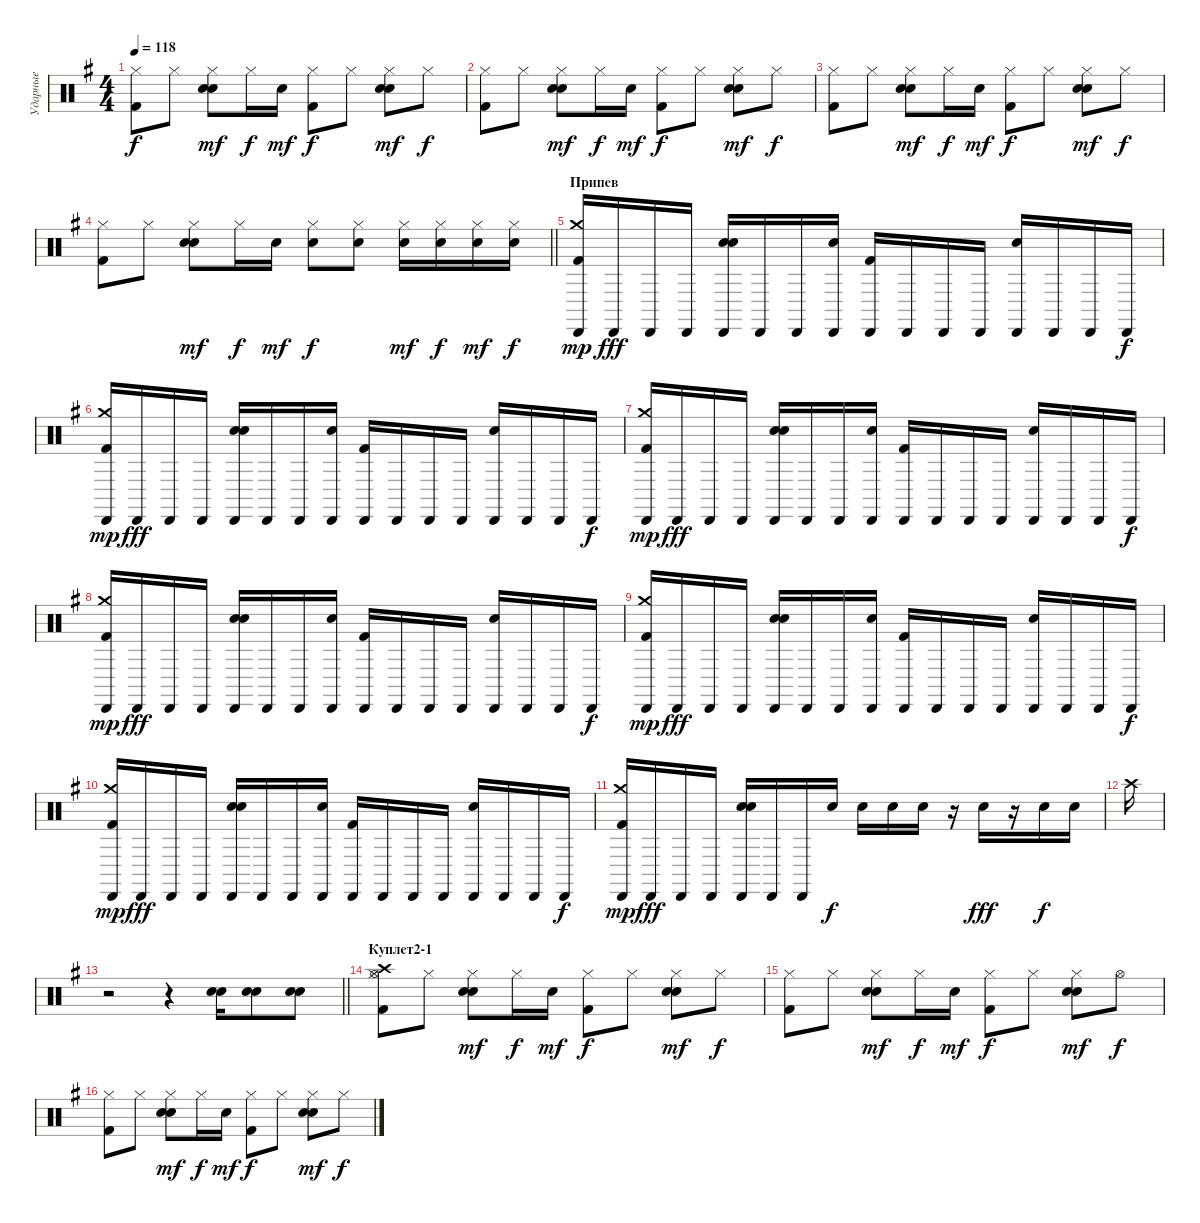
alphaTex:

\track ("Ударные" "Ударные") {instrument percussion}
\staff {score}
\articulation defaults
\ts (4 4)
\tempo 118
\clef neutral
\ks eminor
("Hi-Hat (closed)" "Kick (hit) 2").8{dy f} "Hi-Hat (closed)".8 ("Hi-Hat (closed)" "Electric Snare (hit)" "Snare (hit) 2").8{dy mf} "Hi-Hat (closed)".16{dy f} "Snare (hit) 2".16{dy mf} ("Hi-Hat (closed)" "Kick (hit) 2").8{dy f} "Hi-Hat (closed)".8 ("Hi-Hat (closed)" "Electric Snare (hit)" "Snare (hit) 2").8{dy mf} "Hi-Hat (closed)".8{dy f} |
("Hi-Hat (closed)" "Kick (hit) 2").8 "Hi-Hat (closed)".8 ("Hi-Hat (closed)" "Electric Snare (hit)" "Snare (hit) 2").8{dy mf} "Hi-Hat (closed)".16{dy f} "Snare (hit) 2".16{dy mf} ("Hi-Hat (closed)" "Kick (hit) 2").8{dy f} "Hi-Hat (closed)".8 ("Hi-Hat (closed)" "Electric Snare (hit)" "Snare (hit) 2").8{dy mf} "Hi-Hat (closed)".8{dy f} |
("Hi-Hat (closed)" "Kick (hit) 2").8 "Hi-Hat (closed)".8 ("Hi-Hat (closed)" "Electric Snare (hit)" "Snare (hit) 2").8{dy mf} "Hi-Hat (closed)".16{dy f} "Snare (hit) 2".16{dy mf} ("Hi-Hat (closed)" "Kick (hit) 2").8{dy f} "Hi-Hat (closed)".8 ("Hi-Hat (closed)" "Electric Snare (hit)" "Snare (hit) 2").8{dy mf} "Hi-Hat (closed)".8{dy f} |
\barLineRight lightlight
("Hi-Hat (closed)" "Kick (hit) 2").8 "Hi-Hat (closed)".8 ("Hi-Hat (closed)" "Electric Snare (hit)" "Snare (hit) 2").8{dy mf} "Hi-Hat (closed)".16{dy f} "Snare (hit) 2".16{dy mf} ("Hi-Hat (closed)" "Snare (hit) 2").8{dy f} ("Hi-Hat (closed)" "Snare (hit) 2").8 ("Hi-Hat (closed)" "Snare (hit) 2").16{dy mf} ("Hi-Hat (closed)" "Snare (hit) 2").16{dy f} ("Hi-Hat (closed)" "Snare (hit) 2").16{dy mf} ("Hi-Hat (closed)" "Snare (hit) 2").16{dy f} |
\section ("" "Припев")
("Cabasa (hit)" "Crash medium (hit)" "Kick (hit) 2").16{dy mp} "Cabasa (hit)".16{dy fff} "Cabasa (hit)".16 "Cabasa (hit)".16 ("Cabasa (hit)" "Electric Snare (hit)" "Snare (hit) 2").16 "Cabasa (hit)".16 "Cabasa (hit)".16 ("Cabasa (hit)" "Snare (hit) 2").16 ("Cabasa (hit)" "Kick (hit) 2").16 "Cabasa (hit)".16 "Cabasa (hit)".16 "Cabasa (hit)".16 ("Cabasa (hit)" "Snare (hit) 2").16 "Cabasa (hit)".16 "Cabasa (hit)".16 "Cabasa (hit)".16{dy f} |
("Cabasa (hit)" "Crash medium (hit)" "Kick (hit) 2").16{dy mp} "Cabasa (hit)".16{dy fff} "Cabasa (hit)".16 "Cabasa (hit)".16 ("Cabasa (hit)" "Electric Snare (hit)" "Snare (hit) 2").16 "Cabasa (hit)".16 "Cabasa (hit)".16 ("Cabasa (hit)" "Snare (hit) 2").16 ("Cabasa (hit)" "Kick (hit) 2").16 "Cabasa (hit)".16 "Cabasa (hit)".16 "Cabasa (hit)".16 ("Cabasa (hit)" "Snare (hit) 2").16 "Cabasa (hit)".16 "Cabasa (hit)".16 "Cabasa (hit)".16{dy f} |
("Cabasa (hit)" "Crash medium (hit)" "Kick (hit) 2").16{dy mp} "Cabasa (hit)".16{dy fff} "Cabasa (hit)".16 "Cabasa (hit)".16 ("Cabasa (hit)" "Electric Snare (hit)" "Snare (hit) 2").16 "Cabasa (hit)".16 "Cabasa (hit)".16 ("Cabasa (hit)" "Snare (hit) 2").16 ("Cabasa (hit)" "Kick (hit) 2").16 "Cabasa (hit)".16 "Cabasa (hit)".16 "Cabasa (hit)".16 ("Cabasa (hit)" "Snare (hit) 2").16 "Cabasa (hit)".16 "Cabasa (hit)".16 "Cabasa (hit)".16{dy f} |
("Cabasa (hit)" "Crash medium (hit)" "Kick (hit) 2").16{dy mp} "Cabasa (hit)".16{dy fff} "Cabasa (hit)".16 "Cabasa (hit)".16 ("Cabasa (hit)" "Electric Snare (hit)" "Snare (hit) 2").16 "Cabasa (hit)".16 "Cabasa (hit)".16 ("Cabasa (hit)" "Snare (hit) 2").16 ("Cabasa (hit)" "Kick (hit) 2").16 "Cabasa (hit)".16 "Cabasa (hit)".16 "Cabasa (hit)".16 ("Cabasa (hit)" "Snare (hit) 2").16 "Cabasa (hit)".16 "Cabasa (hit)".16 "Cabasa (hit)".16{dy f} |
("Cabasa (hit)" "Crash medium (hit)" "Kick (hit) 2").16{dy mp} "Cabasa (hit)".16{dy fff} "Cabasa (hit)".16 "Cabasa (hit)".16 ("Cabasa (hit)" "Electric Snare (hit)" "Snare (hit) 2").16 "Cabasa (hit)".16 "Cabasa (hit)".16 ("Cabasa (hit)" "Snare (hit) 2").16 ("Cabasa (hit)" "Kick (hit) 2").16 "Cabasa (hit)".16 "Cabasa (hit)".16 "Cabasa (hit)".16 ("Cabasa (hit)" "Snare (hit) 2").16 "Cabasa (hit)".16 "Cabasa (hit)".16 "Cabasa (hit)".16{dy f} |
("Cabasa (hit)" "Crash medium (hit)" "Kick (hit) 2").16{dy mp} "Cabasa (hit)".16{dy fff} "Cabasa (hit)".16 "Cabasa (hit)".16 ("Cabasa (hit)" "Electric Snare (hit)" "Snare (hit) 2").16 "Cabasa (hit)".16 "Cabasa (hit)".16 ("Cabasa (hit)" "Snare (hit) 2").16 ("Cabasa (hit)" "Kick (hit) 2").16 "Cabasa (hit)".16 "Cabasa (hit)".16 "Cabasa (hit)".16 ("Cabasa (hit)" "Snare (hit) 2").16 "Cabasa (hit)".16 "Cabasa (hit)".16 "Cabasa (hit)".16{dy f} |
("Cabasa (hit)" "Crash medium (hit)" "Kick (hit) 2").16{dy mp} "Cabasa (hit)".16{dy fff} "Cabasa (hit)".16 "Cabasa (hit)".16 ("Cabasa (hit)" "Electric Snare (hit)" "Snare (hit) 2").16 "Cabasa (hit)".16 "Cabasa (hit)".16 "Snare (hit) 2".16{dy f} "Snare (hit) 2".16 "Snare (hit) 2".16 "Snare (hit) 2".16 r.16 "Snare (hit) 2".16{dy fff} r.16 "Snare (hit) 2".16{dy f} "Snare (hit) 2".16 |
"Crash high (hit)".16 |
\barLineRight lightlight
r.2 r.4 ("Snare (hit) 2" "Electric Snare (hit)").16 ("Snare (hit) 2" "Electric Snare (hit)").8 ("Snare (hit) 2" "Electric Snare (hit)").8 |
\section ("" "Куплет2-1")
("Hi-Hat (closed)" "Crash high (hit)" "Kick (hit) 2" "Hi-Hat (open)").8 "Hi-Hat (closed)".8 ("Hi-Hat (closed)" "Electric Snare (hit)" "Snare (hit) 2").8{dy mf} "Hi-Hat (closed)".16{dy f} "Snare (hit) 2".16{dy mf} ("Hi-Hat (closed)" "Kick (hit) 2").8{dy f} "Hi-Hat (closed)".8 ("Hi-Hat (closed)" "Electric Snare (hit)" "Snare (hit) 2").8{dy mf} "Hi-Hat (closed)".8{dy f} |
("Hi-Hat (closed)" "Kick (hit) 2").8 "Hi-Hat (closed)".8 ("Hi-Hat (closed)" "Electric Snare (hit)" "Snare (hit) 2").8{dy mf} "Hi-Hat (closed)".16{dy f} "Snare (hit) 2".16{dy mf} ("Hi-Hat (closed)" "Kick (hit) 2").8{dy f} "Hi-Hat (closed)".8 ("Hi-Hat (closed)" "Electric Snare (hit)" "Snare (hit) 2").8{dy mf} "Hi-Hat (open)".8{dy f} |
("Hi-Hat (closed)" "Kick (hit) 2").8 "Hi-Hat (closed)".8 ("Hi-Hat (closed)" "Electric Snare (hit)" "Snare (hit) 2").8{dy mf} "Hi-Hat (closed)".16{dy f} "Snare (hit) 2".16{dy mf} ("Hi-Hat (closed)" "Kick (hit) 2").8{dy f} "Hi-Hat (closed)".8 ("Hi-Hat (closed)" "Electric Snare (hit)" "Snare (hit) 2").8{dy mf} "Hi-Hat (closed)".8{dy f}
